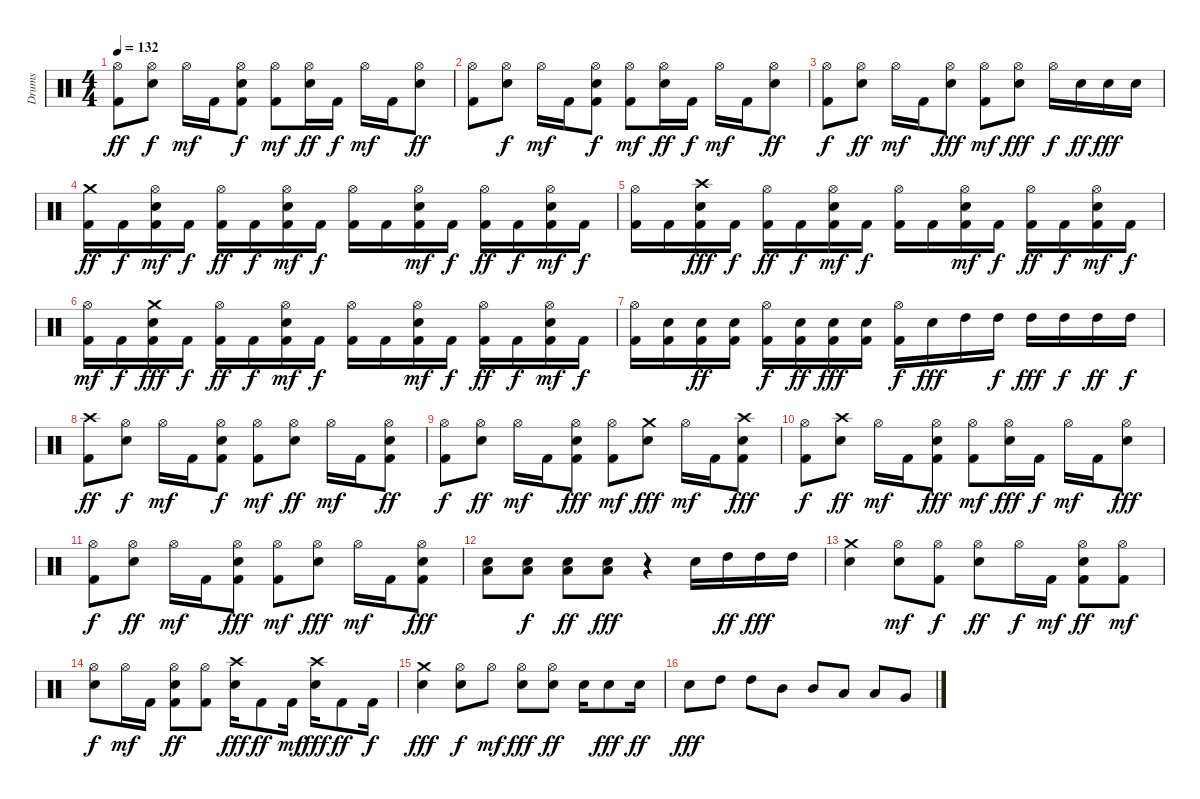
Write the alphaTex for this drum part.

\track ("Drums" "Drums") {instrument percussion}
\staff {score}
\articulation defaults
\ts (4 4)
\tempo 132
\clef neutral
\ks c
("Hi-Hat (open)" "Kick (hit) 2").8{dy ff} ("Hi-Hat (open)" "Electric Snare (hit)").8{dy f} "Hi-Hat (open)".16{dy mf} "Kick (hit) 2".16 ("Hi-Hat (open)" "Electric Snare (hit)" "Kick (hit) 2").8{dy f} ("Hi-Hat (open)" "Kick (hit) 2").8{dy mf} ("Hi-Hat (open)" "Electric Snare (hit)").16{dy ff} "Kick (hit) 2".16{dy f} "Hi-Hat (open)".16{dy mf} "Kick (hit) 2".16 ("Hi-Hat (open)" "Electric Snare (hit)").8{dy ff} |
("Hi-Hat (open)" "Kick (hit) 2").8 ("Hi-Hat (open)" "Electric Snare (hit)").8{dy f} "Hi-Hat (open)".16{dy mf} "Kick (hit) 2".16 ("Hi-Hat (open)" "Electric Snare (hit)" "Kick (hit) 2").8{dy f} ("Hi-Hat (open)" "Kick (hit) 2").8{dy mf} ("Hi-Hat (open)" "Electric Snare (hit)").16{dy ff} "Kick (hit) 2".16{dy f} "Hi-Hat (open)".16{dy mf} "Kick (hit) 2".16 ("Hi-Hat (open)" "Electric Snare (hit)").8{dy ff} |
("Hi-Hat (open)" "Kick (hit) 2").8{dy f} ("Hi-Hat (open)" "Electric Snare (hit)").8{dy ff} "Hi-Hat (open)".16{dy mf} "Kick (hit) 2".16 ("Hi-Hat (open)" "Electric Snare (hit)").8{dy fff} ("Hi-Hat (open)" "Kick (hit) 2").8{dy mf} ("Hi-Hat (open)" "Electric Snare (hit)").8{dy fff} "Hi-Hat (open)".16{dy f} "Electric Snare (hit)".16{dy ff} "Electric Snare (hit)".16{dy fff} "Electric Snare (hit)".16 |
("Crash medium (hit)" "Kick (hit) 2").16{dy ff} "Kick (hit) 2".16{dy f} ("Hi-Hat (open)" "Electric Snare (hit)" "Kick (hit) 2").16{dy mf} "Kick (hit) 2".16{dy f} ("Hi-Hat (open)" "Kick (hit) 2").16{dy ff} "Kick (hit) 2".16{dy f} ("Hi-Hat (open)" "Electric Snare (hit)" "Kick (hit) 2").16{dy mf} "Kick (hit) 2".16{dy f} ("Hi-Hat (open)" "Kick (hit) 2").16 "Kick (hit) 2".16 ("Hi-Hat (open)" "Electric Snare (hit)" "Kick (hit) 2").16{dy mf} "Kick (hit) 2".16{dy f} ("Hi-Hat (open)" "Kick (hit) 2").16{dy ff} "Kick (hit) 2".16{dy f} ("Hi-Hat (open)" "Electric Snare (hit)" "Kick (hit) 2").16{dy mf} "Kick (hit) 2".16{dy f} |
("Hi-Hat (open)" "Kick (hit) 2").16 "Kick (hit) 2".16 ("Crash high (hit)" "Electric Snare (hit)" "Kick (hit) 2").16{dy fff} "Kick (hit) 2".16{dy f} ("Hi-Hat (open)" "Kick (hit) 2").16{dy ff} "Kick (hit) 2".16{dy f} ("Hi-Hat (open)" "Electric Snare (hit)" "Kick (hit) 2").16{dy mf} "Kick (hit) 2".16{dy f} ("Hi-Hat (open)" "Kick (hit) 2").16 "Kick (hit) 2".16 ("Hi-Hat (open)" "Electric Snare (hit)" "Kick (hit) 2").16{dy mf} "Kick (hit) 2".16{dy f} ("Hi-Hat (open)" "Kick (hit) 2").16{dy ff} "Kick (hit) 2".16{dy f} ("Hi-Hat (open)" "Electric Snare (hit)" "Kick (hit) 2").16{dy mf} "Kick (hit) 2".16{dy f} |
("Hi-Hat (open)" "Kick (hit) 2").16{dy mf} "Kick (hit) 2".16{dy f} ("Crash medium (hit)" "Electric Snare (hit)" "Kick (hit) 2").16{dy fff} "Kick (hit) 2".16{dy f} ("Hi-Hat (open)" "Kick (hit) 2").16{dy ff} "Kick (hit) 2".16{dy f} ("Hi-Hat (open)" "Electric Snare (hit)" "Kick (hit) 2").16{dy mf} "Kick (hit) 2".16{dy f} ("Hi-Hat (open)" "Kick (hit) 2").16 "Kick (hit) 2".16 ("Hi-Hat (open)" "Electric Snare (hit)" "Kick (hit) 2").16{dy mf} "Kick (hit) 2".16{dy f} ("Hi-Hat (open)" "Kick (hit) 2").16{dy ff} "Kick (hit) 2".16{dy f} ("Hi-Hat (open)" "Electric Snare (hit)" "Kick (hit) 2").16{dy mf} "Kick (hit) 2".16{dy f} |
("Hi-Hat (open)" "Kick (hit) 2").16 ("Electric Snare (hit)" "Kick (hit) 2").16 ("Electric Snare (hit)" "Kick (hit) 2").16{dy ff} ("Electric Snare (hit)" "Kick (hit) 2").16 ("Hi-Hat (open)" "Kick (hit) 2").16{dy f} ("Electric Snare (hit)" "Kick (hit) 2").16{dy ff} ("Electric Snare (hit)" "Kick (hit) 2").16{dy fff} ("Electric Snare (hit)" "Kick (hit) 2").16 ("Hi-Hat (open)" "Kick (hit) 2").16{dy f} "Electric Snare (hit)".16{dy fff} "High Tom (hit)".16 "High Tom (hit)".16{dy f} "High Tom (hit)".16{dy fff} "High Tom (hit)".16{dy f} "High Tom (hit)".16{dy ff} "High Tom (hit)".16{dy f} |
("Crash high (hit)" "Kick (hit) 2").8{dy ff} ("Hi-Hat (open)" "Electric Snare (hit)").8{dy f} "Hi-Hat (open)".16{dy mf} "Kick (hit) 2".16 ("Hi-Hat (open)" "Electric Snare (hit)" "Kick (hit) 2").8{dy f} ("Hi-Hat (open)" "Kick (hit) 2").8{dy mf} ("Hi-Hat (open)" "Electric Snare (hit)").8{dy ff} "Hi-Hat (open)".16{dy mf} "Kick (hit) 2".16 ("Hi-Hat (open)" "Electric Snare (hit)" "Kick (hit) 2").8{dy ff} |
("Hi-Hat (open)" "Kick (hit) 2").8{dy f} ("Hi-Hat (open)" "Electric Snare (hit)").8{dy ff} "Hi-Hat (open)".16{dy mf} "Kick (hit) 2".16 ("Hi-Hat (open)" "Electric Snare (hit)" "Kick (hit) 2").8{dy fff} ("Hi-Hat (open)" "Kick (hit) 2").8{dy mf} ("Crash medium (hit)" "Electric Snare (hit)").8{dy fff} "Hi-Hat (open)".16{dy mf} "Kick (hit) 2".16 ("Crash high (hit)" "Electric Snare (hit)" "Kick (hit) 2").8{dy fff} |
("Hi-Hat (open)" "Kick (hit) 2").8{dy f} ("Crash high (hit)" "Electric Snare (hit)").8{dy ff} "Hi-Hat (open)".16{dy mf} "Kick (hit) 2".16 ("Hi-Hat (open)" "Electric Snare (hit)" "Kick (hit) 2").8{dy fff} ("Hi-Hat (open)" "Kick (hit) 2").8{dy mf} ("Hi-Hat (open)" "Electric Snare (hit)").16{dy fff} "Kick (hit) 2".16{dy f} "Hi-Hat (open)".16{dy mf} "Kick (hit) 2".16 ("Hi-Hat (open)" "Electric Snare (hit)").8{dy fff} |
("Hi-Hat (open)" "Kick (hit) 2").8{dy f} ("Hi-Hat (open)" "Electric Snare (hit)").8{dy ff} "Hi-Hat (open)".16{dy mf} "Kick (hit) 2".16 ("Hi-Hat (open)" "Electric Snare (hit)" "Kick (hit) 2").8{dy fff} ("Hi-Hat (open)" "Kick (hit) 2").8{dy mf} ("Hi-Hat (open)" "Electric Snare (hit)").8{dy fff} "Hi-Hat (open)".16{dy mf} "Kick (hit) 2".16 ("Hi-Hat (open)" "Electric Snare (hit)" "Kick (hit) 2").8{dy fff} |
("Electric Snare (hit)" "Low Floor Tom (hit)").8 ("Electric Snare (hit)" "Low Floor Tom (hit)").8{dy f} ("Electric Snare (hit)" "Low Floor Tom (hit)").8{dy ff} ("Electric Snare (hit)" "Low Floor Tom (hit)").8{dy fff} r.4 "Electric Snare (hit)".16 "High Tom (hit)".16{dy ff} "High Tom (hit)".16{dy fff} "High Tom (hit)".16 |
("Crash medium (hit)" "Electric Snare (hit)").4 ("Hi-Hat (open)" "Electric Snare (hit)").8{dy mf} ("Hi-Hat (open)" "Kick (hit) 2").8{dy f} ("Hi-Hat (open)" "Electric Snare (hit)").8{dy ff} "Hi-Hat (open)".16{dy f} "Kick (hit) 2".16{dy mf} ("Hi-Hat (open)" "Electric Snare (hit)" "Kick (hit) 2").8{dy ff} ("Hi-Hat (open)" "Kick (hit) 2").8{dy mf} |
("Hi-Hat (open)" "Electric Snare (hit)").8{dy f} "Hi-Hat (open)".16{dy mf} "Kick (hit) 2".16 ("Hi-Hat (open)" "Electric Snare (hit)" "Kick (hit) 2").8{dy ff} ("Hi-Hat (open)" "Kick (hit) 2").8 ("Crash high (hit)" "Electric Snare (hit)").16{dy fff} "Kick (hit) 2".8{dy ff} "Kick (hit) 2".16{dy mf} ("Crash high (hit)" "Electric Snare (hit)").16{dy fff} "Kick (hit) 2".8{dy ff} "Kick (hit) 2".16{dy f} |
("Crash medium (hit)" "Electric Snare (hit)").4{dy fff} ("Hi-Hat (open)" "Electric Snare (hit)").8{dy f} "Hi-Hat (open)".8{dy mf} ("Hi-Hat (open)" "Electric Snare (hit)").8{dy fff} ("Hi-Hat (open)" "Electric Snare (hit)").8{dy ff} "Electric Snare (hit)".16 "Electric Snare (hit)".8{dy fff} "Electric Snare (hit)".16{dy ff} |
"Electric Snare (hit)".8{dy fff} "High Tom (hit)".8 "High Tom (hit)".8 "Mid Tom (hit)".8 "Mid Tom (hit)".8 "Low Tom (hit)".8 "Low Tom (hit)".8 "Very Low Tom (hit)".8
